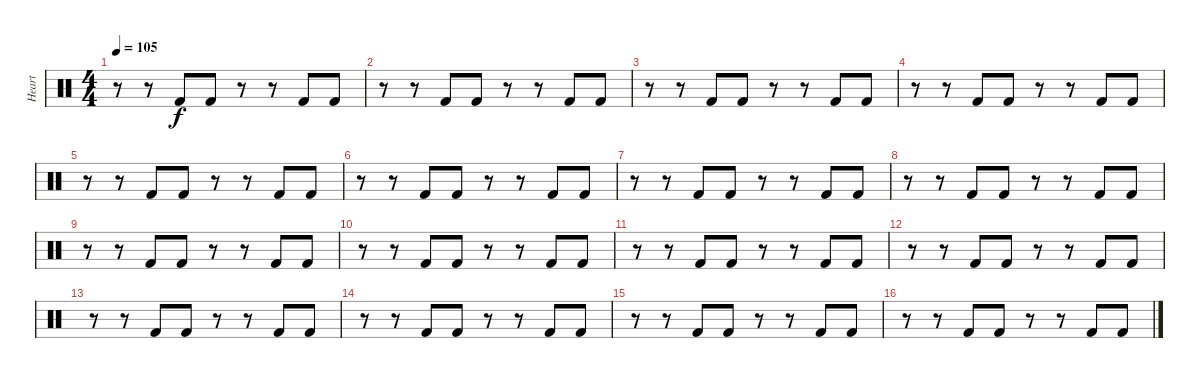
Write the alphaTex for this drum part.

\track ("Heart" "Heart") {instrument percussion}
\staff {score}
\articulation defaults
\ts (4 4)
\tempo 105
\clef neutral
\ks c
r.8{dy f} r.8 "Kick (hit) 2".8 "Kick (hit) 2".8 r.8 r.8 "Kick (hit) 2".8 "Kick (hit) 2".8 |
r.8 r.8 "Kick (hit) 2".8 "Kick (hit) 2".8 r.8 r.8 "Kick (hit) 2".8 "Kick (hit) 2".8 |
r.8 r.8 "Kick (hit) 2".8 "Kick (hit) 2".8 r.8 r.8 "Kick (hit) 2".8 "Kick (hit) 2".8 |
r.8 r.8 "Kick (hit) 2".8 "Kick (hit) 2".8 r.8 r.8 "Kick (hit) 2".8 "Kick (hit) 2".8 |
r.8 r.8 "Kick (hit) 2".8 "Kick (hit) 2".8 r.8 r.8 "Kick (hit) 2".8 "Kick (hit) 2".8 |
r.8 r.8 "Kick (hit) 2".8 "Kick (hit) 2".8 r.8 r.8 "Kick (hit) 2".8 "Kick (hit) 2".8 |
r.8 r.8 "Kick (hit) 2".8 "Kick (hit) 2".8 r.8 r.8 "Kick (hit) 2".8 "Kick (hit) 2".8 |
r.8 r.8 "Kick (hit) 2".8 "Kick (hit) 2".8 r.8 r.8 "Kick (hit) 2".8 "Kick (hit) 2".8 |
r.8 r.8 "Kick (hit) 2".8 "Kick (hit) 2".8 r.8 r.8 "Kick (hit) 2".8 "Kick (hit) 2".8 |
r.8 r.8 "Kick (hit) 2".8 "Kick (hit) 2".8 r.8 r.8 "Kick (hit) 2".8 "Kick (hit) 2".8 |
r.8 r.8 "Kick (hit) 2".8 "Kick (hit) 2".8 r.8 r.8 "Kick (hit) 2".8 "Kick (hit) 2".8 |
r.8 r.8 "Kick (hit) 2".8 "Kick (hit) 2".8 r.8 r.8 "Kick (hit) 2".8 "Kick (hit) 2".8 |
r.8 r.8 "Kick (hit) 2".8 "Kick (hit) 2".8 r.8 r.8 "Kick (hit) 2".8 "Kick (hit) 2".8 |
r.8 r.8 "Kick (hit) 2".8 "Kick (hit) 2".8 r.8 r.8 "Kick (hit) 2".8 "Kick (hit) 2".8 |
r.8 r.8 "Kick (hit) 2".8 "Kick (hit) 2".8 r.8 r.8 "Kick (hit) 2".8 "Kick (hit) 2".8 |
r.8 r.8 "Kick (hit) 2".8 "Kick (hit) 2".8 r.8 r.8 "Kick (hit) 2".8 "Kick (hit) 2".8
